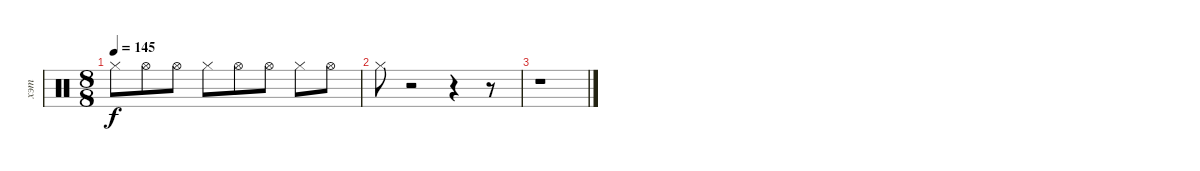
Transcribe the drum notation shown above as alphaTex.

\track ("хэт" "хэт") {instrument percussion}
\staff {score}
\articulation defaults
\ts (8 8)
\tempo 145
\clef neutral
\ks c "Hi-Hat (closed)".8{dy f} "Hi-Hat (open)".8 "Hi-Hat (open)".8 "Hi-Hat (closed)".8 "Hi-Hat (open)".8 "Hi-Hat (open)".8 "Hi-Hat (closed)".8 "Hi-Hat (open)".8
|
"Hi-Hat (closed)".8 r.2 r.4 r.8 |
r.1
